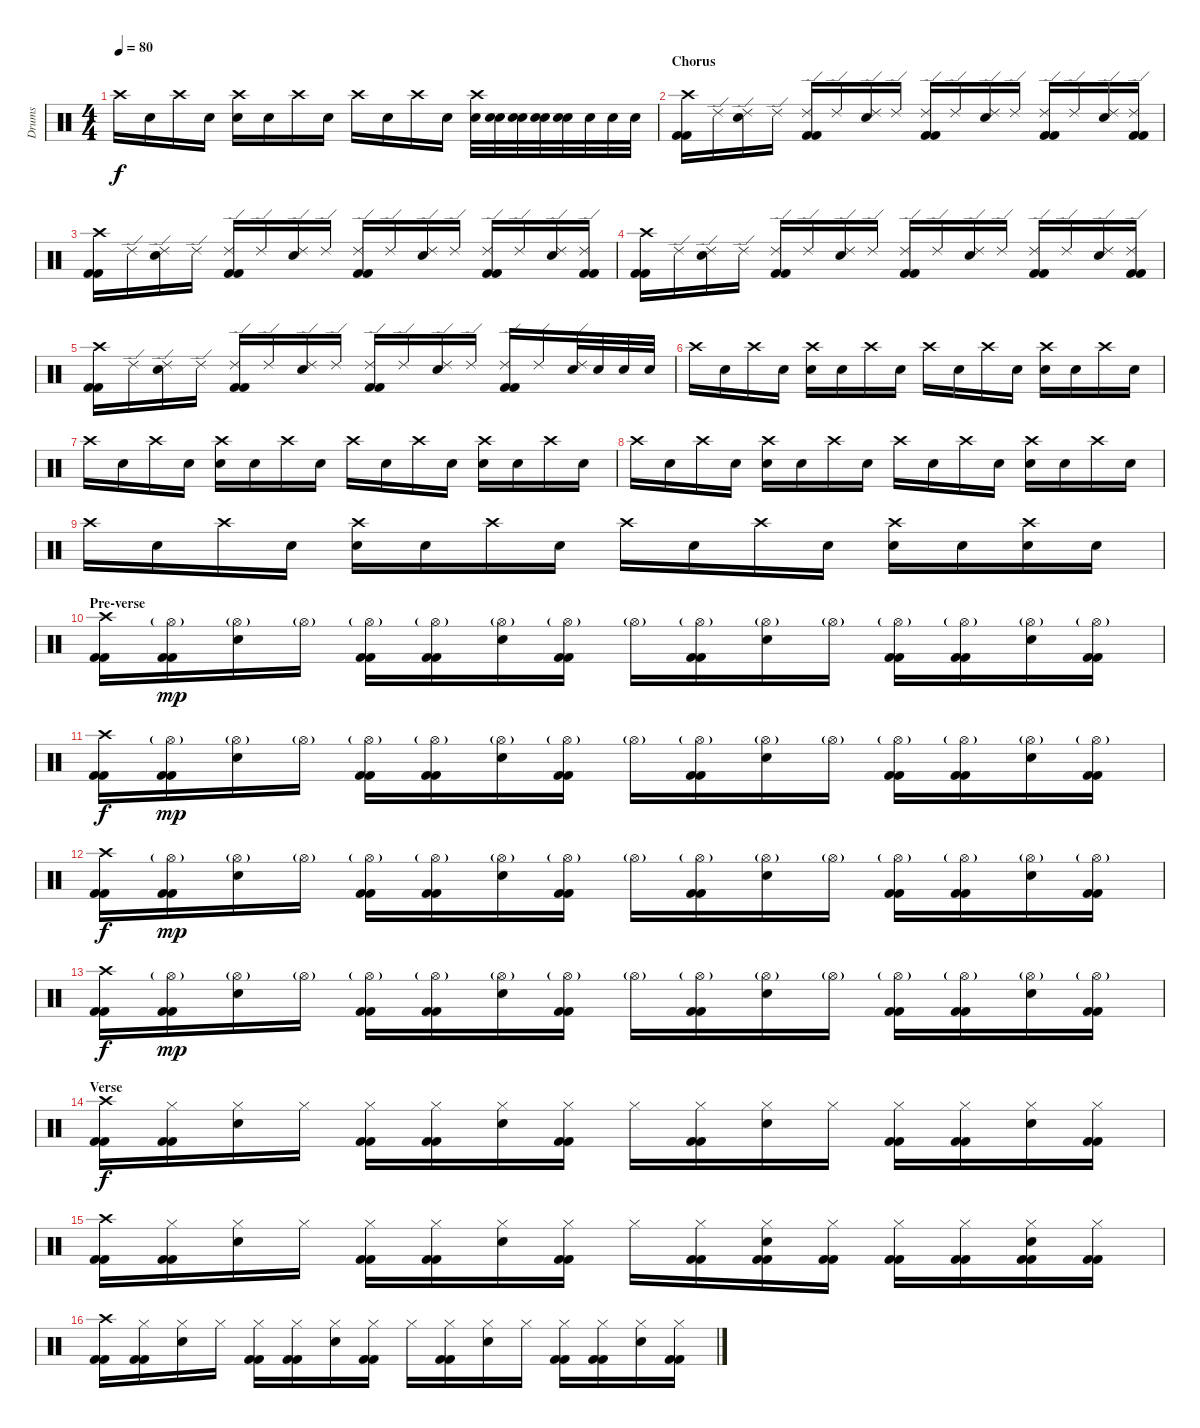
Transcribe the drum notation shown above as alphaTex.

\track ("Drums" "Drums") {instrument percussion}
\staff {score}
\articulation defaults
\ts (4 4)
\tempo 80
\clef neutral
\ks c "Crash high (hit)".16{dy f} "Snare (hit)"{x}.16 "Crash high (hit)".16 "Snare (hit)"{x}.16
("Crash high (hit)" "Electric Snare (hit)").16 "Snare (hit)"{x}.16 "Crash high (hit)".16 "Snare (hit)"{x}.16 "Crash high (hit)".16 "Snare (hit)"{x}.16 "Crash high (hit)".16 "Snare (hit)"{x}.16 ("Crash high (hit)" "Electric Snare (hit)").32 ("Snare (hit)"{x} "Electric Snare (hit)").32 ("Snare (hit)"{x} "Electric Snare (hit)").32 ("Snare (hit)"{x} "Electric Snare (hit)").32 ("Snare (hit)"{x} "Electric Snare (hit)").32 "Electric Snare (hit)".32 "Electric Snare (hit)".32 "Electric Snare (hit)".32 |
\section ("" "Chorus")
("Crash high (hit)" "Kick (hit) 2" "Kick (hit) 2").16 "Ride (edge) 2".16 ("Ride (edge) 2" "Electric Snare (hit)").16 "Ride (edge) 2".16 ("Ride (edge) 2" "Kick (hit) 2" "Kick (hit) 2").16 "Ride (edge) 2".16 ("Ride (edge) 2" "Electric Snare (hit)").16 "Ride (edge) 2".16 ("Ride (edge) 2" "Kick (hit) 2" "Kick (hit) 2").16 "Ride (edge) 2".16 ("Ride (edge) 2" "Electric Snare (hit)").16 "Ride (edge) 2".16 ("Ride (edge) 2" "Kick (hit) 2" "Kick (hit) 2").16 "Ride (edge) 2".16 ("Ride (edge) 2" "Electric Snare (hit)").16 ("Ride (edge) 2" "Kick (hit) 2" "Kick (hit) 2").16 |
("Crash high (hit)" "Kick (hit) 2" "Kick (hit) 2").16 "Ride (edge) 2".16 ("Ride (edge) 2" "Electric Snare (hit)").16 "Ride (edge) 2".16 ("Ride (edge) 2" "Kick (hit) 2" "Kick (hit) 2").16 "Ride (edge) 2".16 ("Ride (edge) 2" "Electric Snare (hit)").16 "Ride (edge) 2".16 ("Ride (edge) 2" "Kick (hit) 2" "Kick (hit) 2").16 "Ride (edge) 2".16 ("Ride (edge) 2" "Electric Snare (hit)").16 "Ride (edge) 2".16 ("Ride (edge) 2" "Kick (hit) 2" "Kick (hit) 2").16 "Ride (edge) 2".16 ("Ride (edge) 2" "Electric Snare (hit)").16 ("Ride (edge) 2" "Kick (hit) 2" "Kick (hit) 2").16 |
("Crash high (hit)" "Kick (hit) 2" "Kick (hit) 2").16 "Ride (edge) 2".16 ("Ride (edge) 2" "Electric Snare (hit)").16 "Ride (edge) 2".16 ("Ride (edge) 2" "Kick (hit) 2" "Kick (hit) 2").16 "Ride (edge) 2".16 ("Ride (edge) 2" "Electric Snare (hit)").16 "Ride (edge) 2".16 ("Ride (edge) 2" "Kick (hit) 2" "Kick (hit) 2").16 "Ride (edge) 2".16 ("Ride (edge) 2" "Electric Snare (hit)").16 "Ride (edge) 2".16 ("Ride (edge) 2" "Kick (hit) 2" "Kick (hit) 2").16 "Ride (edge) 2".16 ("Ride (edge) 2" "Electric Snare (hit)").16 ("Ride (edge) 2" "Kick (hit) 2" "Kick (hit) 2").16 |
("Crash high (hit)" "Kick (hit) 2" "Kick (hit) 2").16 "Ride (edge) 2".16 ("Ride (edge) 2" "Electric Snare (hit)").16 "Ride (edge) 2".16 ("Ride (edge) 2" "Kick (hit) 2" "Kick (hit) 2").16 "Ride (edge) 2".16 ("Ride (edge) 2" "Electric Snare (hit)").16 "Ride (edge) 2".16 ("Ride (edge) 2" "Kick (hit) 2" "Kick (hit) 2").16 "Ride (edge) 2".16 ("Ride (edge) 2" "Electric Snare (hit)").16 "Ride (edge) 2".16 ("Ride (edge) 2" "Kick (hit) 2" "Kick (hit) 2").16 "Ride (edge) 2".16 ("Ride (edge) 2" "Electric Snare (hit)").32 "Electric Snare (hit)".32 "Electric Snare (hit)".32 "Electric Snare (hit)".32 |
"Crash high (hit)".16 "Snare (hit)"{x}.16 "Crash high (hit)".16 "Snare (hit)"{x}.16 ("Crash high (hit)" "Electric Snare (hit)").16 "Snare (hit)"{x}.16 "Crash high (hit)".16 "Snare (hit)"{x}.16 "Crash high (hit)".16 "Snare (hit)"{x}.16 "Crash high (hit)".16 "Snare (hit)"{x}.16 ("Crash high (hit)" "Electric Snare (hit)").16 "Snare (hit)"{x}.16 "Crash high (hit)".16 "Snare (hit)"{x}.16 |
"Crash high (hit)".16 "Snare (hit)"{x}.16 "Crash high (hit)".16 "Snare (hit)"{x}.16 ("Crash high (hit)" "Electric Snare (hit)").16 "Snare (hit)"{x}.16 "Crash high (hit)".16 "Snare (hit)"{x}.16 "Crash high (hit)".16 "Snare (hit)"{x}.16 "Crash high (hit)".16 "Snare (hit)"{x}.16 ("Crash high (hit)" "Electric Snare (hit)").16 "Snare (hit)"{x}.16 "Crash high (hit)".16 "Snare (hit)"{x}.16 |
"Crash high (hit)".16 "Snare (hit)"{x}.16 "Crash high (hit)".16 "Snare (hit)"{x}.16 ("Crash high (hit)" "Electric Snare (hit)").16 "Snare (hit)"{x}.16 "Crash high (hit)".16 "Snare (hit)"{x}.16 "Crash high (hit)".16 "Snare (hit)"{x}.16 "Crash high (hit)".16 "Snare (hit)"{x}.16 ("Crash high (hit)" "Electric Snare (hit)").16 "Snare (hit)"{x}.16 "Crash high (hit)".16 "Snare (hit)"{x}.16 |
"Crash high (hit)".16 "Snare (hit)"{x}.16 "Crash high (hit)".16 "Snare (hit)"{x}.16 ("Crash high (hit)" "Electric Snare (hit)").16 "Snare (hit)"{x}.16 "Crash high (hit)".16 "Snare (hit)"{x}.16 "Crash high (hit)".16 "Snare (hit)"{x}.16 "Crash high (hit)".16 "Snare (hit)"{x}.16 ("Crash high (hit)" "Electric Snare (hit)").16 "Snare (hit)"{x}.16 ("Crash high (hit)" "Electric Snare (hit)").16 "Snare (hit)"{x}.16 |
\section ("" "Pre-verse")
("Crash high (hit)" "Kick (hit) 2" "Kick (hit) 2").16 ("Hi-Hat (open)"{g} "Kick (hit) 2" "Kick (hit) 2").16{dy mp} ("Hi-Hat (open)"{g} "Electric Snare (hit)").16 "Hi-Hat (open)"{g}.16 ("Hi-Hat (open)"{g} "Kick (hit) 2" "Kick (hit) 2").16 ("Hi-Hat (open)"{g} "Kick (hit) 2" "Kick (hit) 2").16 ("Hi-Hat (open)"{g} "Electric Snare (hit)").16 ("Hi-Hat (open)"{g} "Kick (hit) 2" "Kick (hit) 2").16 "Hi-Hat (open)"{g}.16 ("Hi-Hat (open)"{g} "Kick (hit) 2" "Kick (hit) 2").16 ("Hi-Hat (open)"{g} "Electric Snare (hit)").16 "Hi-Hat (open)"{g}.16 ("Hi-Hat (open)"{g} "Kick (hit) 2" "Kick (hit) 2").16 ("Hi-Hat (open)"{g} "Kick (hit) 2" "Kick (hit) 2").16 ("Hi-Hat (open)"{g} "Electric Snare (hit)").16 ("Hi-Hat (open)"{g} "Kick (hit) 2" "Kick (hit) 2").16 |
("Crash high (hit)" "Kick (hit) 2" "Kick (hit) 2").16{dy f} ("Hi-Hat (open)"{g} "Kick (hit) 2" "Kick (hit) 2").16{dy mp} ("Hi-Hat (open)"{g} "Electric Snare (hit)").16 "Hi-Hat (open)"{g}.16 ("Hi-Hat (open)"{g} "Kick (hit) 2" "Kick (hit) 2").16 ("Hi-Hat (open)"{g} "Kick (hit) 2" "Kick (hit) 2").16 ("Hi-Hat (open)"{g} "Electric Snare (hit)").16 ("Hi-Hat (open)"{g} "Kick (hit) 2" "Kick (hit) 2").16 "Hi-Hat (open)"{g}.16 ("Hi-Hat (open)"{g} "Kick (hit) 2" "Kick (hit) 2").16 ("Hi-Hat (open)"{g} "Electric Snare (hit)").16 "Hi-Hat (open)"{g}.16 ("Hi-Hat (open)"{g} "Kick (hit) 2" "Kick (hit) 2").16 ("Hi-Hat (open)"{g} "Kick (hit) 2" "Kick (hit) 2").16 ("Hi-Hat (open)"{g} "Electric Snare (hit)").16 ("Hi-Hat (open)"{g} "Kick (hit) 2" "Kick (hit) 2").16 |
("Crash high (hit)" "Kick (hit) 2" "Kick (hit) 2").16{dy f} ("Hi-Hat (open)"{g} "Kick (hit) 2" "Kick (hit) 2").16{dy mp} ("Hi-Hat (open)"{g} "Electric Snare (hit)").16 "Hi-Hat (open)"{g}.16 ("Hi-Hat (open)"{g} "Kick (hit) 2" "Kick (hit) 2").16 ("Hi-Hat (open)"{g} "Kick (hit) 2" "Kick (hit) 2").16 ("Hi-Hat (open)"{g} "Electric Snare (hit)").16 ("Hi-Hat (open)"{g} "Kick (hit) 2" "Kick (hit) 2").16 "Hi-Hat (open)"{g}.16 ("Hi-Hat (open)"{g} "Kick (hit) 2" "Kick (hit) 2").16 ("Hi-Hat (open)"{g} "Electric Snare (hit)").16 "Hi-Hat (open)"{g}.16 ("Hi-Hat (open)"{g} "Kick (hit) 2" "Kick (hit) 2").16 ("Hi-Hat (open)"{g} "Kick (hit) 2" "Kick (hit) 2").16 ("Hi-Hat (open)"{g} "Electric Snare (hit)").16 ("Hi-Hat (open)"{g} "Kick (hit) 2" "Kick (hit) 2").16 |
("Crash high (hit)" "Kick (hit) 2" "Kick (hit) 2").16{dy f} ("Hi-Hat (open)"{g} "Kick (hit) 2" "Kick (hit) 2").16{dy mp} ("Hi-Hat (open)"{g} "Electric Snare (hit)").16 "Hi-Hat (open)"{g}.16 ("Hi-Hat (open)"{g} "Kick (hit) 2" "Kick (hit) 2").16 ("Hi-Hat (open)"{g} "Kick (hit) 2" "Kick (hit) 2").16 ("Hi-Hat (open)"{g} "Electric Snare (hit)").16 ("Hi-Hat (open)"{g} "Kick (hit) 2" "Kick (hit) 2").16 "Hi-Hat (open)"{g}.16 ("Hi-Hat (open)"{g} "Kick (hit) 2" "Kick (hit) 2").16 ("Hi-Hat (open)"{g} "Electric Snare (hit)").16 "Hi-Hat (open)"{g}.16 ("Hi-Hat (open)"{g} "Kick (hit) 2" "Kick (hit) 2").16 ("Hi-Hat (open)"{g} "Kick (hit) 2" "Kick (hit) 2").16 ("Hi-Hat (open)"{g} "Electric Snare (hit)").16 ("Hi-Hat (open)"{g} "Kick (hit) 2" "Kick (hit) 2").16 |
\section ("" "Verse")
("Crash high (hit)" "Kick (hit) 2" "Kick (hit) 2").16{dy f} ("Hi-Hat (closed)" "Kick (hit) 2" "Kick (hit) 2").16 ("Hi-Hat (closed)" "Electric Snare (hit)").16 "Hi-Hat (closed)".16 ("Hi-Hat (closed)" "Kick (hit) 2" "Kick (hit) 2").16 ("Hi-Hat (closed)" "Kick (hit) 2" "Kick (hit) 2").16 ("Hi-Hat (closed)" "Electric Snare (hit)").16 ("Hi-Hat (closed)" "Kick (hit) 2" "Kick (hit) 2").16 "Hi-Hat (closed)".16 ("Hi-Hat (closed)" "Kick (hit) 2" "Kick (hit) 2").16 ("Hi-Hat (closed)" "Electric Snare (hit)").16 "Hi-Hat (closed)".16 ("Hi-Hat (closed)" "Kick (hit) 2" "Kick (hit) 2").16 ("Hi-Hat (closed)" "Kick (hit) 2" "Kick (hit) 2").16 ("Hi-Hat (closed)" "Electric Snare (hit)").16 ("Hi-Hat (closed)" "Kick (hit) 2" "Kick (hit) 2").16 |
("Crash high (hit)" "Kick (hit) 2" "Kick (hit) 2").16 ("Hi-Hat (closed)" "Kick (hit) 2" "Kick (hit) 2").16 ("Hi-Hat (closed)" "Electric Snare (hit)").16 "Hi-Hat (closed)".16 ("Hi-Hat (closed)" "Kick (hit) 2" "Kick (hit) 2").16 ("Hi-Hat (closed)" "Kick (hit) 2" "Kick (hit) 2").16 ("Hi-Hat (closed)" "Electric Snare (hit)").16 ("Hi-Hat (closed)" "Kick (hit) 2" "Kick (hit) 2").16 "Hi-Hat (closed)".16 ("Hi-Hat (closed)" "Kick (hit) 2" "Kick (hit) 2").16 ("Hi-Hat (closed)" "Electric Snare (hit)" "Kick (hit) 2" "Kick (hit) 2").16 ("Hi-Hat (closed)" "Kick (hit) 2" "Kick (hit) 2").16 ("Hi-Hat (closed)" "Kick (hit) 2" "Kick (hit) 2").16 ("Hi-Hat (closed)" "Kick (hit) 2" "Kick (hit) 2").16 ("Hi-Hat (closed)" "Electric Snare (hit)" "Kick (hit) 2" "Kick (hit) 2").16 ("Hi-Hat (closed)" "Kick (hit) 2" "Kick (hit) 2").16 |
("Crash high (hit)" "Kick (hit) 2" "Kick (hit) 2").16 ("Hi-Hat (closed)" "Kick (hit) 2" "Kick (hit) 2").16 ("Hi-Hat (closed)" "Electric Snare (hit)").16 "Hi-Hat (closed)".16 ("Hi-Hat (closed)" "Kick (hit) 2" "Kick (hit) 2").16 ("Hi-Hat (closed)" "Kick (hit) 2" "Kick (hit) 2").16 ("Hi-Hat (closed)" "Electric Snare (hit)").16 ("Hi-Hat (closed)" "Kick (hit) 2" "Kick (hit) 2").16 "Hi-Hat (closed)".16 ("Hi-Hat (closed)" "Kick (hit) 2" "Kick (hit) 2").16 ("Hi-Hat (closed)" "Electric Snare (hit)").16 "Hi-Hat (closed)".16 ("Hi-Hat (closed)" "Kick (hit) 2" "Kick (hit) 2").16 ("Hi-Hat (closed)" "Kick (hit) 2" "Kick (hit) 2").16 ("Hi-Hat (closed)" "Electric Snare (hit)").16 ("Hi-Hat (closed)" "Kick (hit) 2" "Kick (hit) 2").16
